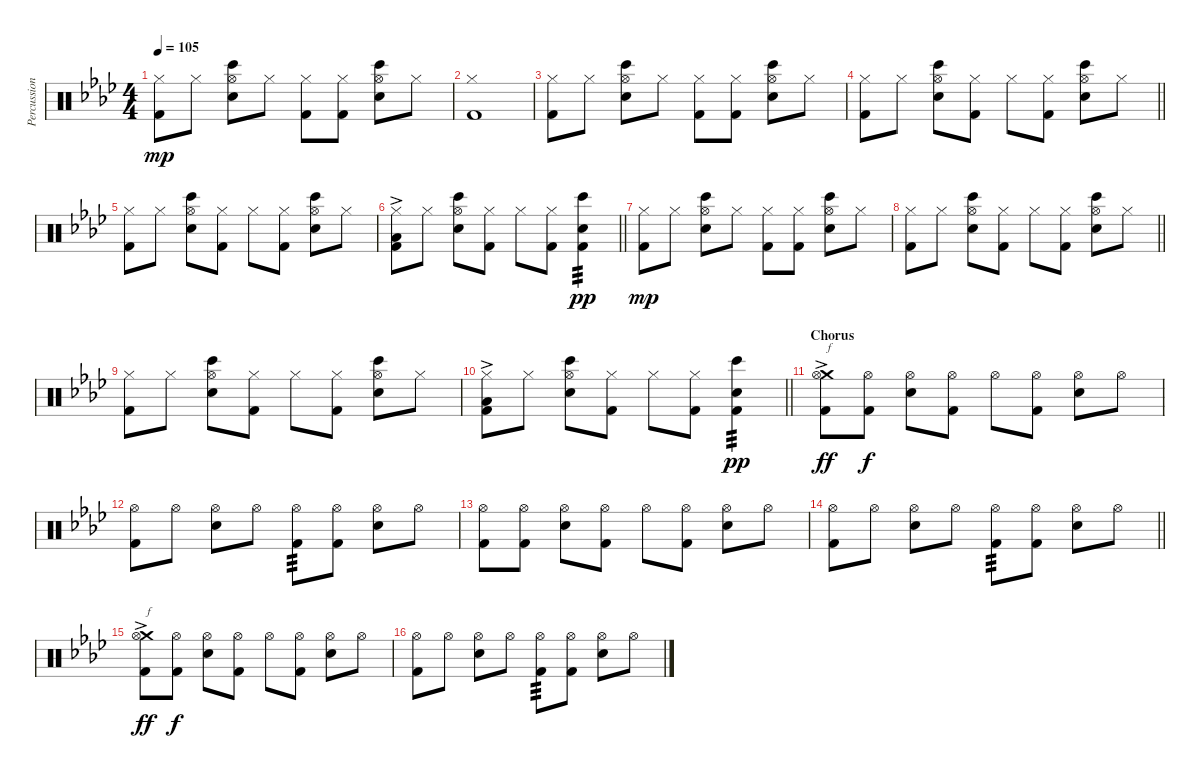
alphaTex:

\track ("Percussion" "Percussion") {instrument percussion}
\staff {score}
\articulation defaults
\ts (4 4)
\section ("" "")
\tempo 105
\clef neutral
\ks fminor
("Hi-Hat (closed)" "Kick (hit) 2").8{dy mp} "Hi-Hat (closed)".8 ("Hi-Hat (open)" "Snare (hit) 2" "Bongo High (hit)").8 "Hi-Hat (closed)".8 ("Hi-Hat (closed)" "Kick (hit) 2").8 ("Hi-Hat (closed)" "Kick (hit) 2").8 ("Hi-Hat (open)" "Snare (hit) 2" "Bongo High (hit)").8 "Hi-Hat (closed)".8 |
("Hi-Hat (closed)" "Kick (hit) 2").1 |
("Hi-Hat (closed)" "Kick (hit) 2").8 "Hi-Hat (closed)".8 ("Hi-Hat (open)" "Snare (hit) 2" "Bongo High (hit)").8 "Hi-Hat (closed)".8 ("Hi-Hat (closed)" "Kick (hit) 2").8 ("Hi-Hat (closed)" "Kick (hit) 2").8 ("Hi-Hat (open)" "Snare (hit) 2" "Bongo High (hit)").8 "Hi-Hat (closed)".8 |
\barLineRight lightlight
("Hi-Hat (closed)" "Kick (hit) 2").8 "Hi-Hat (closed)".8 ("Hi-Hat (open)" "Snare (hit) 2" "Bongo High (hit)").8 ("Hi-Hat (closed)" "Kick (hit) 2").8 "Hi-Hat (closed)".8 ("Hi-Hat (closed)" "Kick (hit) 2").8 ("Hi-Hat (open)" "Snare (hit) 2" "Bongo High (hit)").8 "Hi-Hat (closed)".8 |
\section ("" "")
("Hi-Hat (closed)" "Kick (hit) 2").8 "Hi-Hat (closed)".8 ("Hi-Hat (open)" "Snare (hit) 2" "Bongo High (hit)").8 ("Hi-Hat (closed)" "Kick (hit) 2").8 "Hi-Hat (closed)".8 ("Hi-Hat (closed)" "Kick (hit) 2").8 ("Hi-Hat (open)" "Snare (hit) 2" "Bongo High (hit)").8 "Hi-Hat (closed)".8 |
\barLineRight lightlight
("Hi-Hat (closed)" "Low Floor Tom (hit)"{ac} "Kick (hit) 2").8 "Hi-Hat (closed)".8 ("Hi-Hat (open)" "Snare (hit) 2" "Bongo High (hit)").8 ("Hi-Hat (closed)" "Kick (hit) 2").8 "Hi-Hat (closed)".8 ("Hi-Hat (closed)" "Kick (hit) 2").8 ("Snare (hit) 2" "Bongo High (hit)" "Kick (hit) 2").4{tp 3 dy pp} |
("Hi-Hat (closed)" "Kick (hit) 2").8{dy mp} "Hi-Hat (closed)".8 ("Hi-Hat (open)" "Snare (hit) 2" "Bongo High (hit)").8 "Hi-Hat (closed)".8 ("Hi-Hat (closed)" "Kick (hit) 2").8 ("Hi-Hat (closed)" "Kick (hit) 2").8 ("Hi-Hat (open)" "Snare (hit) 2" "Bongo High (hit)").8 "Hi-Hat (closed)".8 |
\barLineRight lightlight
("Hi-Hat (closed)" "Kick (hit) 2").8 "Hi-Hat (closed)".8 ("Hi-Hat (open)" "Snare (hit) 2" "Bongo High (hit)").8 ("Hi-Hat (closed)" "Kick (hit) 2").8 "Hi-Hat (closed)".8 ("Hi-Hat (closed)" "Kick (hit) 2").8 ("Hi-Hat (open)" "Snare (hit) 2" "Bongo High (hit)").8 "Hi-Hat (closed)".8 |
\section ("" "")
("Hi-Hat (closed)" "Kick (hit) 2").8 "Hi-Hat (closed)".8 ("Hi-Hat (open)" "Snare (hit) 2" "Bongo High (hit)").8 ("Hi-Hat (closed)" "Kick (hit) 2").8 "Hi-Hat (closed)".8 ("Hi-Hat (closed)" "Kick (hit) 2").8 ("Hi-Hat (open)" "Snare (hit) 2" "Bongo High (hit)").8 "Hi-Hat (closed)".8 |
\barLineRight lightlight
("Hi-Hat (closed)" "Low Floor Tom (hit)"{ac} "Kick (hit) 2").8 "Hi-Hat (closed)".8 ("Hi-Hat (open)" "Snare (hit) 2" "Bongo High (hit)").8 ("Hi-Hat (closed)" "Kick (hit) 2").8 "Hi-Hat (closed)".8 ("Hi-Hat (closed)" "Kick (hit) 2").8 ("Snare (hit) 2" "Bongo High (hit)" "Kick (hit) 2").4{tp 3 dy pp} |
\section ("" "Chorus")
("Crash medium (hit)"{ac} "Hi-Hat (open)"{ac} "Kick (hit) 2"{ac}).8{txt "f" dy ff} ("Hi-Hat (open)" "Kick (hit) 2").8{dy f} ("Hi-Hat (open)" "Electric Snare (hit)").8 ("Hi-Hat (open)" "Kick (hit) 2").8 "Hi-Hat (open)".8 ("Hi-Hat (open)" "Kick (hit) 2").8 ("Hi-Hat (open)" "Electric Snare (hit)").8 "Hi-Hat (open)".8 |
("Hi-Hat (open)" "Kick (hit) 2").8 "Hi-Hat (open)".8 ("Hi-Hat (open)" "Electric Snare (hit)").8 "Hi-Hat (open)".8 ("Hi-Hat (open)" "Kick (hit) 2").8{tp 3} ("Hi-Hat (open)" "Kick (hit) 2").8 ("Hi-Hat (open)" "Electric Snare (hit)").8 "Hi-Hat (open)".8 |
("Hi-Hat (open)" "Kick (hit) 2").8 ("Hi-Hat (open)" "Kick (hit) 2").8 ("Hi-Hat (open)" "Electric Snare (hit)").8 ("Hi-Hat (open)" "Kick (hit) 2").8 "Hi-Hat (open)".8 ("Hi-Hat (open)" "Kick (hit) 2").8 ("Hi-Hat (open)" "Electric Snare (hit)").8 "Hi-Hat (open)".8 |
\barLineRight lightlight
("Hi-Hat (open)" "Kick (hit) 2").8 "Hi-Hat (open)".8 ("Hi-Hat (open)" "Electric Snare (hit)").8 "Hi-Hat (open)".8 ("Hi-Hat (open)" "Kick (hit) 2").8{tp 3} ("Hi-Hat (open)" "Kick (hit) 2").8 ("Hi-Hat (open)" "Electric Snare (hit)").8 "Hi-Hat (open)".8 |
\section ("" "")
("Crash medium (hit)"{ac} "Hi-Hat (open)"{ac} "Kick (hit) 2"{ac}).8{txt "f" dy ff} ("Hi-Hat (open)" "Kick (hit) 2").8{dy f} ("Hi-Hat (open)" "Electric Snare (hit)").8 ("Hi-Hat (open)" "Kick (hit) 2").8 "Hi-Hat (open)".8 ("Hi-Hat (open)" "Kick (hit) 2").8 ("Hi-Hat (open)" "Electric Snare (hit)").8 "Hi-Hat (open)".8 |
("Hi-Hat (open)" "Kick (hit) 2").8 "Hi-Hat (open)".8 ("Hi-Hat (open)" "Electric Snare (hit)").8 "Hi-Hat (open)".8 ("Hi-Hat (open)" "Kick (hit) 2").8{tp 3} ("Hi-Hat (open)" "Kick (hit) 2").8 ("Hi-Hat (open)" "Electric Snare (hit)").8 "Hi-Hat (open)".8
